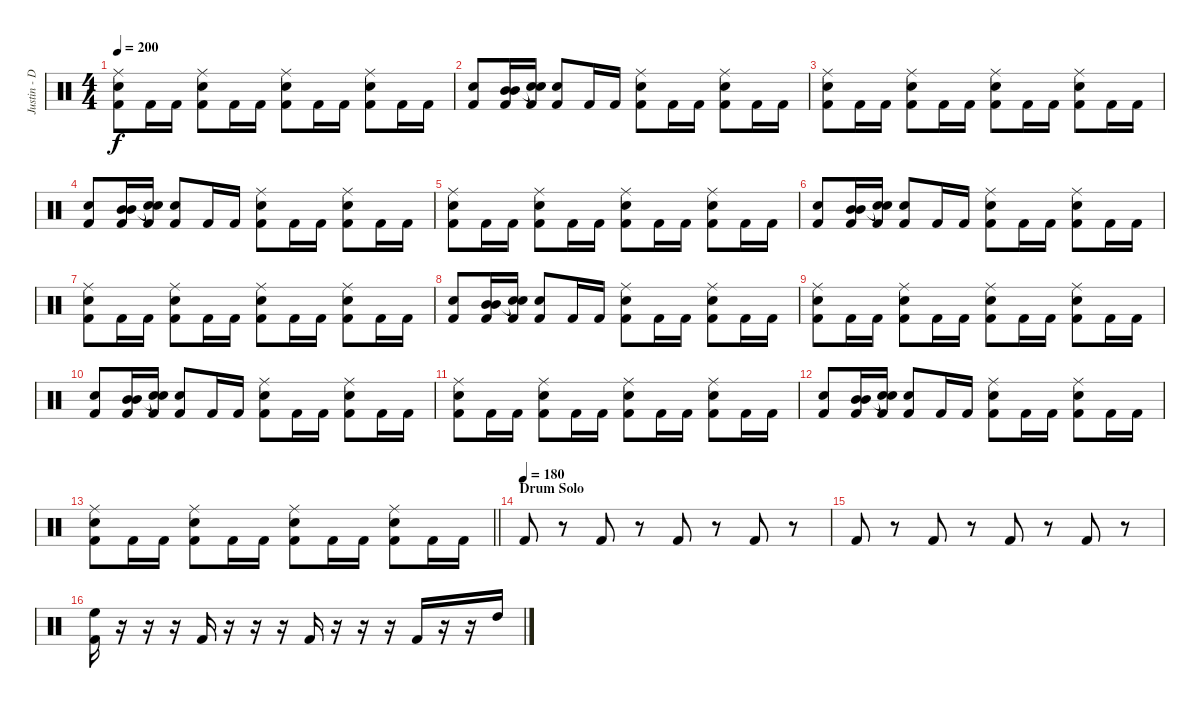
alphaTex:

\track ("Justin - Drums" "Justin - D") {instrument percussion}
\staff {score}
\articulation defaults
\ts (4 4)
\tempo 200
\clef neutral
\ks c
("Ride (middle)" "Snare (hit) 2" "Kick (hit) 2").8{dy f} "Kick (hit) 2".16 "Kick (hit) 2".16 ("Ride (middle)" "Snare (hit) 2" "Kick (hit) 2").8 "Kick (hit) 2".16 "Kick (hit) 2".16 ("Ride (middle)" "Snare (hit) 2" "Kick (hit) 2").8 "Kick (hit) 2".16 "Kick (hit) 2".16 ("Ride (middle)" "Snare (hit) 2" "Kick (hit) 2").8 "Kick (hit) 2".16 "Kick (hit) 2".16 |
("Snare (hit) 2" "Kick (hit) 2").8 ("Mid Tom (hit)" "Mid Tom (hit)" "Kick (hit) 2").16 ("Snare (hit)"{t} "Snare (hit)"{t} "Kick (hit) 2").16 ("Snare (hit) 2" "Kick (hit) 2").8 "Kick (hit) 2".16 "Kick (hit) 2".16 ("Ride (middle)" "Snare (hit) 2" "Kick (hit) 2").8 "Kick (hit) 2".16 "Kick (hit) 2".16 ("Ride (middle)" "Snare (hit) 2" "Kick (hit) 2").8 "Kick (hit) 2".16 "Kick (hit) 2".16 |
("Ride (middle)" "Snare (hit) 2" "Kick (hit) 2").8 "Kick (hit) 2".16 "Kick (hit) 2".16 ("Ride (middle)" "Snare (hit) 2" "Kick (hit) 2").8 "Kick (hit) 2".16 "Kick (hit) 2".16 ("Ride (middle)" "Snare (hit) 2" "Kick (hit) 2").8 "Kick (hit) 2".16 "Kick (hit) 2".16 ("Ride (middle)" "Snare (hit) 2" "Kick (hit) 2").8 "Kick (hit) 2".16 "Kick (hit) 2".16 |
("Snare (hit) 2" "Kick (hit) 2").8 ("Mid Tom (hit)" "Mid Tom (hit)" "Kick (hit) 2").16 ("Snare (hit)"{t} "Snare (hit)"{t} "Kick (hit) 2").16 ("Snare (hit) 2" "Kick (hit) 2").8 "Kick (hit) 2".16 "Kick (hit) 2".16 ("Ride (middle)" "Snare (hit) 2" "Kick (hit) 2").8 "Kick (hit) 2".16 "Kick (hit) 2".16 ("Ride (middle)" "Snare (hit) 2" "Kick (hit) 2").8 "Kick (hit) 2".16 "Kick (hit) 2".16 |
("Ride (middle)" "Snare (hit) 2" "Kick (hit) 2").8 "Kick (hit) 2".16 "Kick (hit) 2".16 ("Ride (middle)" "Snare (hit) 2" "Kick (hit) 2").8 "Kick (hit) 2".16 "Kick (hit) 2".16 ("Ride (middle)" "Snare (hit) 2" "Kick (hit) 2").8 "Kick (hit) 2".16 "Kick (hit) 2".16 ("Ride (middle)" "Snare (hit) 2" "Kick (hit) 2").8 "Kick (hit) 2".16 "Kick (hit) 2".16 |
("Snare (hit) 2" "Kick (hit) 2").8 ("Mid Tom (hit)" "Mid Tom (hit)" "Kick (hit) 2").16 ("Snare (hit)"{t} "Snare (hit)"{t} "Kick (hit) 2").16 ("Snare (hit) 2" "Kick (hit) 2").8 "Kick (hit) 2".16 "Kick (hit) 2".16 ("Ride (middle)" "Snare (hit) 2" "Kick (hit) 2").8 "Kick (hit) 2".16 "Kick (hit) 2".16 ("Ride (middle)" "Snare (hit) 2" "Kick (hit) 2").8 "Kick (hit) 2".16 "Kick (hit) 2".16 |
("Ride (middle)" "Snare (hit) 2" "Kick (hit) 2").8 "Kick (hit) 2".16 "Kick (hit) 2".16 ("Ride (middle)" "Snare (hit) 2" "Kick (hit) 2").8 "Kick (hit) 2".16 "Kick (hit) 2".16 ("Ride (middle)" "Snare (hit) 2" "Kick (hit) 2").8 "Kick (hit) 2".16 "Kick (hit) 2".16 ("Ride (middle)" "Snare (hit) 2" "Kick (hit) 2").8 "Kick (hit) 2".16 "Kick (hit) 2".16 |
("Snare (hit) 2" "Kick (hit) 2").8 ("Mid Tom (hit)" "Mid Tom (hit)" "Kick (hit) 2").16 ("Snare (hit)"{t} "Snare (hit)"{t} "Kick (hit) 2").16 ("Snare (hit) 2" "Kick (hit) 2").8 "Kick (hit) 2".16 "Kick (hit) 2".16 ("Ride (middle)" "Snare (hit) 2" "Kick (hit) 2").8 "Kick (hit) 2".16 "Kick (hit) 2".16 ("Ride (middle)" "Snare (hit) 2" "Kick (hit) 2").8 "Kick (hit) 2".16 "Kick (hit) 2".16 |
("Ride (middle)" "Snare (hit) 2" "Kick (hit) 2").8 "Kick (hit) 2".16 "Kick (hit) 2".16 ("Ride (middle)" "Snare (hit) 2" "Kick (hit) 2").8 "Kick (hit) 2".16 "Kick (hit) 2".16 ("Ride (middle)" "Snare (hit) 2" "Kick (hit) 2").8 "Kick (hit) 2".16 "Kick (hit) 2".16 ("Ride (middle)" "Snare (hit) 2" "Kick (hit) 2").8 "Kick (hit) 2".16 "Kick (hit) 2".16 |
("Snare (hit) 2" "Kick (hit) 2").8 ("Mid Tom (hit)" "Mid Tom (hit)" "Kick (hit) 2").16 ("Snare (hit)"{t} "Snare (hit)"{t} "Kick (hit) 2").16 ("Snare (hit) 2" "Kick (hit) 2").8 "Kick (hit) 2".16 "Kick (hit) 2".16 ("Ride (middle)" "Snare (hit) 2" "Kick (hit) 2").8 "Kick (hit) 2".16 "Kick (hit) 2".16 ("Ride (middle)" "Snare (hit) 2" "Kick (hit) 2").8 "Kick (hit) 2".16 "Kick (hit) 2".16 |
("Ride (middle)" "Snare (hit) 2" "Kick (hit) 2").8 "Kick (hit) 2".16 "Kick (hit) 2".16 ("Ride (middle)" "Snare (hit) 2" "Kick (hit) 2").8 "Kick (hit) 2".16 "Kick (hit) 2".16 ("Ride (middle)" "Snare (hit) 2" "Kick (hit) 2").8 "Kick (hit) 2".16 "Kick (hit) 2".16 ("Ride (middle)" "Snare (hit) 2" "Kick (hit) 2").8 "Kick (hit) 2".16 "Kick (hit) 2".16 |
("Snare (hit) 2" "Kick (hit) 2").8 ("Mid Tom (hit)" "Mid Tom (hit)" "Kick (hit) 2").16 ("Snare (hit)"{t} "Snare (hit)"{t} "Kick (hit) 2").16 ("Snare (hit) 2" "Kick (hit) 2").8 "Kick (hit) 2".16 "Kick (hit) 2".16 ("Ride (middle)" "Snare (hit) 2" "Kick (hit) 2").8 "Kick (hit) 2".16 "Kick (hit) 2".16 ("Ride (middle)" "Snare (hit) 2" "Kick (hit) 2").8 "Kick (hit) 2".16 "Kick (hit) 2".16 |
\barLineRight lightlight
("Ride (middle)" "Snare (hit) 2" "Kick (hit) 2").8 "Kick (hit) 2".16 "Kick (hit) 2".16 ("Ride (middle)" "Snare (hit) 2" "Kick (hit) 2").8 "Kick (hit) 2".16 "Kick (hit) 2".16 ("Ride (middle)" "Snare (hit) 2" "Kick (hit) 2").8 "Kick (hit) 2".16 "Kick (hit) 2".16 ("Ride (middle)" "Snare (hit) 2" "Kick (hit) 2").8 "Kick (hit) 2".16 "Kick (hit) 2".16 |
\section ("" "Drum Solo")
\tempo (180)
"Kick (hit) 2".8 r.8 "Kick (hit) 2".8 r.8 "Kick (hit) 2".8 r.8 "Kick (hit) 2".8 r.8 |
"Kick (hit) 2".8 r.8 "Kick (hit) 2".8 r.8 "Kick (hit) 2".8 r.8 "Kick (hit) 2".8 r.8 |
("High Floor Tom (hit)" "Kick (hit) 2").16 r.16 r.16 r.16 "Kick (hit) 2".16 r.16 r.16 r.16 "Kick (hit) 2".16 r.16 r.16 r.16 "Kick (hit) 2".16 r.16 r.16 "High Tom (hit)".16
